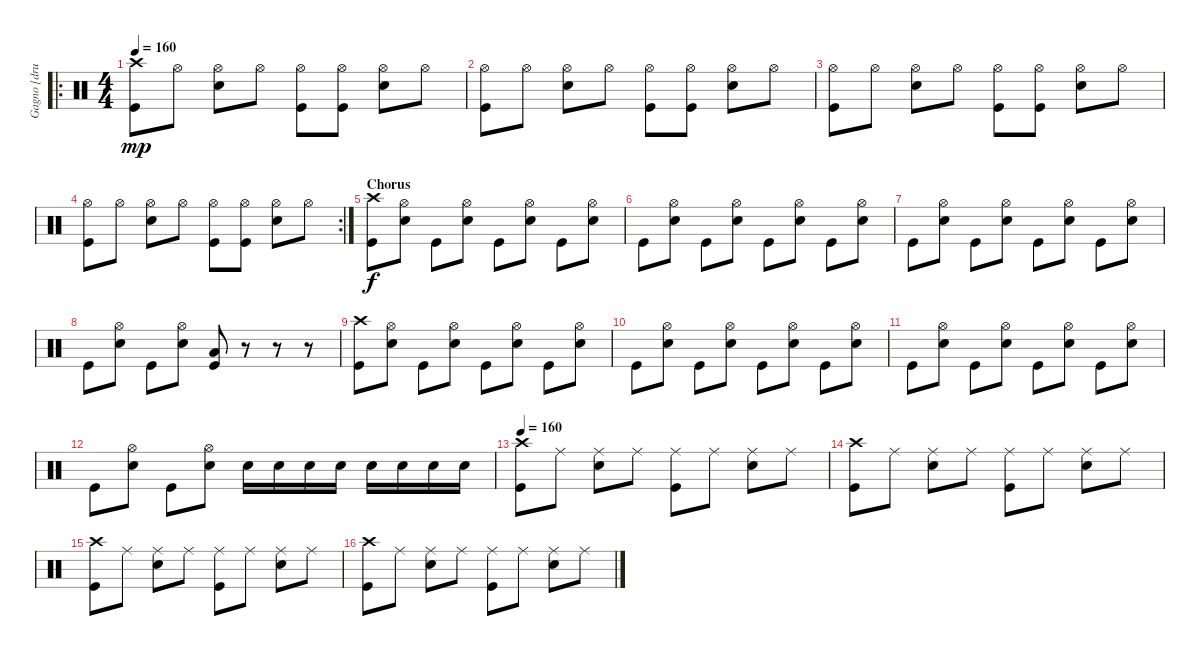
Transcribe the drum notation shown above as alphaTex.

\track ("Gagno [drums]" "Gagno [dru") {instrument percussion}
\staff {score}
\articulation defaults
\ro
\ts (4 4)
\tempo 160
\clef neutral
\ks c
("Crash high (hit)" "Kick (hit)").8{dy mp} "Hi-Hat (open)".8 ("Hi-Hat (open)" "Snare (hit) 2").8 "Hi-Hat (open)".8 ("Hi-Hat (open)" "Kick (hit)").8 ("Hi-Hat (open)" "Kick (hit)").8 ("Hi-Hat (open)" "Snare (hit) 2").8 "Hi-Hat (open)".8 |
("Hi-Hat (open)" "Kick (hit)").8 "Hi-Hat (open)".8 ("Hi-Hat (open)" "Snare (hit) 2").8 "Hi-Hat (open)".8 ("Hi-Hat (open)" "Kick (hit)").8 ("Hi-Hat (open)" "Kick (hit)").8 ("Hi-Hat (open)" "Snare (hit) 2").8 "Hi-Hat (open)".8 |
("Hi-Hat (open)" "Kick (hit)").8 "Hi-Hat (open)".8 ("Hi-Hat (open)" "Snare (hit) 2").8 "Hi-Hat (open)".8 ("Hi-Hat (open)" "Kick (hit)").8 ("Hi-Hat (open)" "Kick (hit)").8 ("Hi-Hat (open)" "Snare (hit) 2").8 "Hi-Hat (open)".8 |
\rc 2
("Hi-Hat (open)" "Kick (hit)").8 "Hi-Hat (open)".8 ("Hi-Hat (open)" "Snare (hit) 2").8 "Hi-Hat (open)".8 ("Hi-Hat (open)" "Kick (hit)").8 ("Hi-Hat (open)" "Kick (hit)").8 ("Hi-Hat (open)" "Snare (hit) 2").8 "Hi-Hat (open)".8 |
\section ("" "Chorus")
("Crash high (hit)" "Kick (hit)").8{dy f} ("Hi-Hat (open)" "Snare (hit) 2").8 "Kick (hit)".8 ("Hi-Hat (open)" "Snare (hit) 2").8 "Kick (hit)".8 ("Hi-Hat (open)" "Snare (hit) 2").8 "Kick (hit)".8 ("Hi-Hat (open)" "Snare (hit) 2").8 |
"Kick (hit)".8 ("Hi-Hat (open)" "Snare (hit) 2").8 "Kick (hit)".8 ("Hi-Hat (open)" "Snare (hit) 2").8 "Kick (hit)".8 ("Hi-Hat (open)" "Snare (hit) 2").8 "Kick (hit)".8 ("Hi-Hat (open)" "Snare (hit) 2").8 |
"Kick (hit)".8 ("Hi-Hat (open)" "Snare (hit) 2").8 "Kick (hit)".8 ("Hi-Hat (open)" "Snare (hit) 2").8 "Kick (hit)".8 ("Hi-Hat (open)" "Snare (hit) 2").8 "Kick (hit)".8 ("Hi-Hat (open)" "Snare (hit) 2").8 |
"Kick (hit)".8 ("Hi-Hat (open)" "Snare (hit) 2").8 "Kick (hit)".8 ("Hi-Hat (open)" "Snare (hit) 2").8 ("Low Tom (hit)" "Kick (hit)").8 r.8 r.8 r.8 |
("Crash high (hit)" "Kick (hit)").8 ("Hi-Hat (open)" "Snare (hit) 2").8 "Kick (hit)".8 ("Hi-Hat (open)" "Snare (hit) 2").8 "Kick (hit)".8 ("Hi-Hat (open)" "Snare (hit) 2").8 "Kick (hit)".8 ("Hi-Hat (open)" "Snare (hit) 2").8 |
"Kick (hit)".8 ("Hi-Hat (open)" "Snare (hit) 2").8 "Kick (hit)".8 ("Hi-Hat (open)" "Snare (hit) 2").8 "Kick (hit)".8 ("Hi-Hat (open)" "Snare (hit) 2").8 "Kick (hit)".8 ("Hi-Hat (open)" "Snare (hit) 2").8 |
"Kick (hit)".8 ("Hi-Hat (open)" "Snare (hit) 2").8 "Kick (hit)".8 ("Hi-Hat (open)" "Snare (hit) 2").8 "Kick (hit)".8 ("Hi-Hat (open)" "Snare (hit) 2").8 "Kick (hit)".8 ("Hi-Hat (open)" "Snare (hit) 2").8 |
"Kick (hit)".8 ("Hi-Hat (open)" "Snare (hit) 2").8 "Kick (hit)".8 ("Hi-Hat (open)" "Snare (hit) 2").8 "Snare (hit) 2".16 "Snare (hit) 2".16 "Snare (hit) 2".16 "Snare (hit) 2".16 "Snare (hit) 2".16 "Snare (hit) 2".16 "Snare (hit) 2".16 "Snare (hit) 2".16 |
\tempo 160
("Crash high (hit)" "Kick (hit)").8 "Ride (middle)".8 ("Ride (middle)" "Snare (hit) 2").8 "Ride (middle)".8 ("Ride (middle)" "Kick (hit)").8 "Ride (middle)".8 ("Ride (middle)" "Snare (hit) 2").8 "Ride (middle)".8 |
("Crash high (hit)" "Kick (hit)").8 "Ride (middle)".8 ("Ride (middle)" "Snare (hit) 2").8 "Ride (middle)".8 ("Ride (middle)" "Kick (hit)").8 "Ride (middle)".8 ("Ride (middle)" "Snare (hit) 2").8 "Ride (middle)".8 |
("Crash high (hit)" "Kick (hit)").8 "Ride (middle)".8 ("Ride (middle)" "Snare (hit) 2").8 "Ride (middle)".8 ("Ride (middle)" "Kick (hit)").8 "Ride (middle)".8 ("Ride (middle)" "Snare (hit) 2").8 "Ride (middle)".8 |
("Crash high (hit)" "Kick (hit)").8 "Ride (middle)".8 ("Ride (middle)" "Snare (hit) 2").8 "Ride (middle)".8 ("Ride (middle)" "Kick (hit)").8 "Ride (middle)".8 ("Ride (middle)" "Snare (hit) 2").8 "Ride (middle)".8
